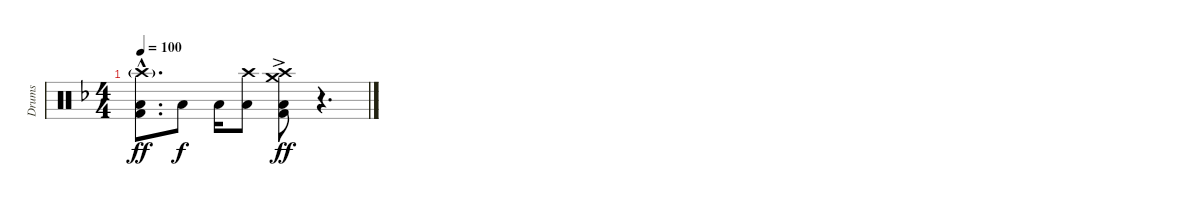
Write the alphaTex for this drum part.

\track ("Drums" "Drums") {instrument percussion}
\staff {score}
\articulation defaults
\ts (4 4)
\tempo 100
\clef neutral
\ks f
("Crash high (hit)"{g hac} "Low Floor Tom (hit)"{hac} "Kick (hit) 2"{hac}).8{d dy ff} "Low Tom (hit)".8{dy f} "Low Tom (hit)".16 ("Crash high (hit)" "Low Tom (hit)").8 ("Crash high (hit)" "Crash medium (hit)" "Low Floor Tom (hit)" "Kick (hit) 2"{ac}).8{dy ff} r.4{d}
